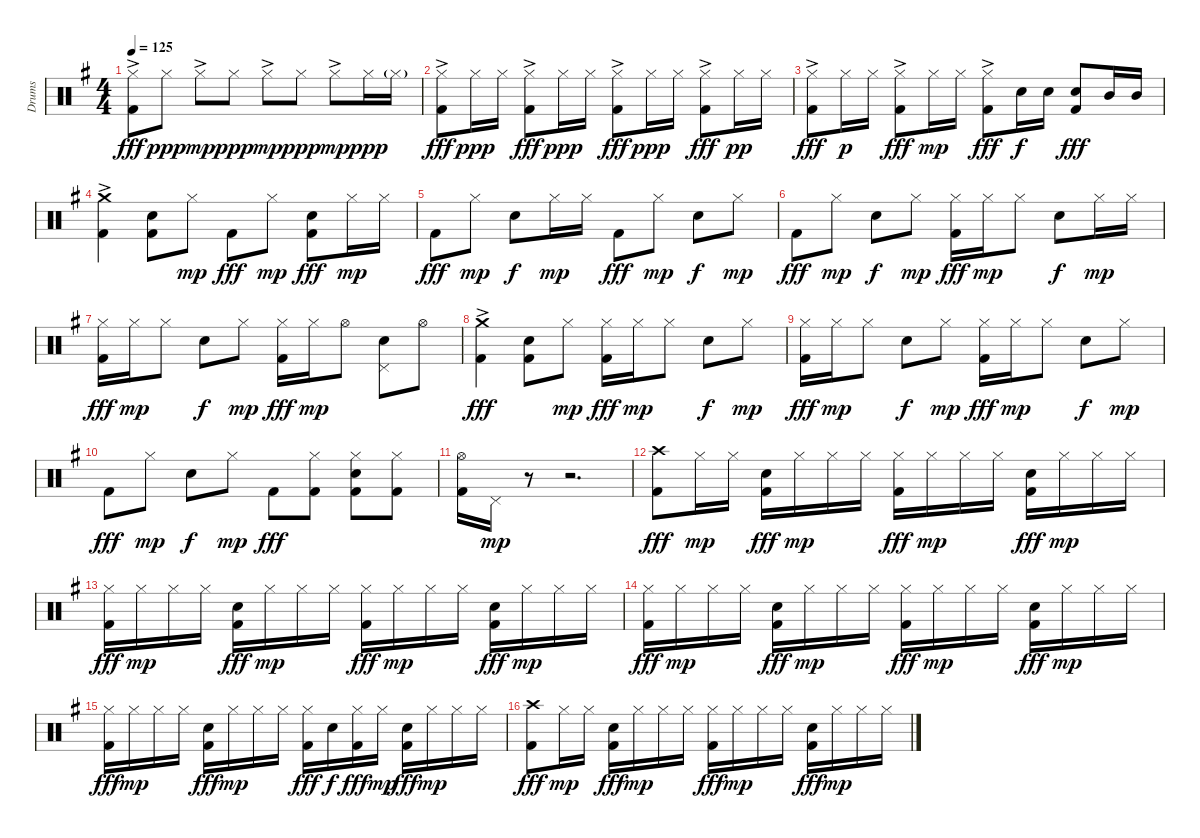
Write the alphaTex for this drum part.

\track ("Drums" "Drums") {instrument percussion}
\staff {score}
\articulation defaults
\ts (4 4)
\tempo 125
\clef neutral
\ks eminor
("Hi-Hat (closed)"{ac} "Kick (hit) 2").8{dy fff} "Hi-Hat (closed)".8{dy ppp} "Hi-Hat (closed)"{ac}.8{dy mp} "Hi-Hat (closed)".8{dy ppp} "Hi-Hat (closed)"{ac}.8{dy mp} "Hi-Hat (closed)".8{dy ppp} "Hi-Hat (closed)"{ac}.8{dy mp} "Hi-Hat (closed)".16{dy ppp} "Hi-Hat (closed)"{g}.16 |
("Hi-Hat (closed)"{ac} "Kick (hit) 2").8{dy fff} "Hi-Hat (closed)".16{dy ppp} "Hi-Hat (closed)".16 ("Hi-Hat (closed)"{ac} "Kick (hit) 2").8{dy fff} "Hi-Hat (closed)".16{dy ppp} "Hi-Hat (closed)".16 ("Hi-Hat (closed)"{ac} "Kick (hit) 2").8{dy fff} "Hi-Hat (closed)".16{dy ppp} "Hi-Hat (closed)".16 ("Hi-Hat (closed)"{ac} "Kick (hit) 2").8{dy fff} "Hi-Hat (closed)".16{dy pp} "Hi-Hat (closed)".16 |
("Hi-Hat (closed)"{ac} "Kick (hit) 2").8{dy fff} "Hi-Hat (closed)".16{dy p} "Hi-Hat (closed)".16 ("Hi-Hat (closed)"{ac} "Kick (hit) 2").8{dy fff} "Hi-Hat (closed)".16{dy mp} "Hi-Hat (closed)".16 ("Hi-Hat (closed)"{ac} "Kick (hit) 2").8{dy fff} "Electric Snare (hit)".16{dy f} "Electric Snare (hit)".16 ("Electric Snare (hit)" "Kick (hit) 2").8{dy fff} "Mid Tom (hit)".16 "Mid Tom (hit)".16 |
("Crash medium (hit)"{ac} "Kick (hit) 2").4 ("Electric Snare (hit)" "Kick (hit) 2").8 "Hi-Hat (closed)".8{dy mp} "Kick (hit) 2".8{dy fff} "Hi-Hat (closed)".8{dy mp} ("Electric Snare (hit)" "Kick (hit) 2").8{dy fff} "Hi-Hat (closed)".16{dy mp} "Hi-Hat (closed)".16 |
"Kick (hit) 2".8{dy fff} "Hi-Hat (closed)".8{dy mp} "Electric Snare (hit)".8{dy f} "Hi-Hat (closed)".16{dy mp} "Hi-Hat (closed)".16 "Kick (hit) 2".8{dy fff} "Hi-Hat (closed)".8{dy mp} "Electric Snare (hit)".8{dy f} "Hi-Hat (closed)".8{dy mp} |
"Kick (hit) 2".8{dy fff} "Hi-Hat (closed)".8{dy mp} "Electric Snare (hit)".8{dy f} "Hi-Hat (closed)".8{dy mp} ("Hi-Hat (closed)" "Kick (hit) 2").16{dy fff} "Hi-Hat (closed)".16{dy mp} "Hi-Hat (closed)".8 "Electric Snare (hit)".8{dy f} "Hi-Hat (closed)".16{dy mp} "Hi-Hat (closed)".16 |
("Hi-Hat (closed)" "Kick (hit) 2").16{dy fff} "Hi-Hat (closed)".16{dy mp} "Hi-Hat (closed)".8 "Electric Snare (hit)".8{dy f} "Hi-Hat (closed)".8{dy mp} ("Hi-Hat (closed)" "Kick (hit) 2").16{dy fff} "Hi-Hat (closed)".16{dy mp} "Hi-Hat (open)".8 ("Pedal Hi-Hat (hit)" "Electric Snare (hit)").8 "Hi-Hat (open)".8 |
("Crash medium (hit)"{ac} "Kick (hit) 2").4{dy fff} ("Electric Snare (hit)" "Kick (hit) 2").8 "Hi-Hat (closed)".8{dy mp} ("Hi-Hat (closed)" "Kick (hit) 2").16{dy fff} "Hi-Hat (closed)".16{dy mp} "Hi-Hat (closed)".8 "Electric Snare (hit)".8{dy f} "Hi-Hat (closed)".8{dy mp} |
("Hi-Hat (closed)" "Kick (hit) 2").16{dy fff} "Hi-Hat (closed)".16{dy mp} "Hi-Hat (closed)".8 "Electric Snare (hit)".8{dy f} "Hi-Hat (closed)".8{dy mp} ("Hi-Hat (closed)" "Kick (hit) 2").16{dy fff} "Hi-Hat (closed)".16{dy mp} "Hi-Hat (closed)".8 "Electric Snare (hit)".8{dy f} "Hi-Hat (closed)".8{dy mp} |
"Kick (hit) 2".8{dy fff} "Hi-Hat (closed)".8{dy mp} "Electric Snare (hit)".8{dy f} "Hi-Hat (closed)".8{dy mp} "Kick (hit) 2".8{dy fff} ("Hi-Hat (closed)" "Kick (hit) 2").8 ("Hi-Hat (closed)" "Electric Snare (hit)" "Kick (hit) 2").8 ("Hi-Hat (closed)" "Kick (hit) 2").8 |
("Hi-Hat (open)" "Kick (hit) 2").16 "Pedal Hi-Hat (hit)".16{dy mp} r.8 r.2{d} |
("Crash high (hit)" "Kick (hit) 2").8{dy fff} "Hi-Hat (closed)".16{dy mp} "Hi-Hat (closed)".16 ("Electric Snare (hit)" "Kick (hit) 2").16{dy fff} "Hi-Hat (closed)".16{dy mp} "Hi-Hat (closed)".16 "Hi-Hat (closed)".16 ("Hi-Hat (closed)" "Kick (hit) 2").16{dy fff} "Hi-Hat (closed)".16{dy mp} "Hi-Hat (closed)".16 "Hi-Hat (closed)".16 ("Electric Snare (hit)" "Kick (hit) 2").16{dy fff} "Hi-Hat (closed)".16{dy mp} "Hi-Hat (closed)".16 "Hi-Hat (closed)".16 |
("Hi-Hat (closed)" "Kick (hit) 2").16{dy fff} "Hi-Hat (closed)".16{dy mp} "Hi-Hat (closed)".16 "Hi-Hat (closed)".16 ("Electric Snare (hit)" "Kick (hit) 2").16{dy fff} "Hi-Hat (closed)".16{dy mp} "Hi-Hat (closed)".16 "Hi-Hat (closed)".16 ("Hi-Hat (closed)" "Kick (hit) 2").16{dy fff} "Hi-Hat (closed)".16{dy mp} "Hi-Hat (closed)".16 "Hi-Hat (closed)".16 ("Electric Snare (hit)" "Kick (hit) 2").16{dy fff} "Hi-Hat (closed)".16{dy mp} "Hi-Hat (closed)".16 "Hi-Hat (closed)".16 |
("Hi-Hat (closed)" "Kick (hit) 2").16{dy fff} "Hi-Hat (closed)".16{dy mp} "Hi-Hat (closed)".16 "Hi-Hat (closed)".16 ("Electric Snare (hit)" "Kick (hit) 2").16{dy fff} "Hi-Hat (closed)".16{dy mp} "Hi-Hat (closed)".16 "Hi-Hat (closed)".16 ("Hi-Hat (closed)" "Kick (hit) 2").16{dy fff} "Hi-Hat (closed)".16{dy mp} "Hi-Hat (closed)".16 "Hi-Hat (closed)".16 ("Electric Snare (hit)" "Kick (hit) 2").16{dy fff} "Hi-Hat (closed)".16{dy mp} "Hi-Hat (closed)".16 "Hi-Hat (closed)".16 |
("Hi-Hat (closed)" "Kick (hit) 2").16{dy fff} "Hi-Hat (closed)".16{dy mp} "Hi-Hat (closed)".16 "Hi-Hat (closed)".16 ("Electric Snare (hit)" "Kick (hit) 2").16{dy fff} "Hi-Hat (closed)".16{dy mp} "Hi-Hat (closed)".16 "Hi-Hat (closed)".16 ("Hi-Hat (closed)" "Kick (hit) 2").16{dy fff} "Electric Snare (hit)".16{dy f} ("Hi-Hat (closed)" "Kick (hit) 2").16{dy fff} "Hi-Hat (closed)".16{dy mp} ("Electric Snare (hit)" "Kick (hit) 2").16{dy fff} "Hi-Hat (closed)".16{dy mp} "Hi-Hat (closed)".16 "Hi-Hat (closed)".16 |
("Crash high (hit)" "Kick (hit) 2").8{dy fff} "Hi-Hat (closed)".16{dy mp} "Hi-Hat (closed)".16 ("Electric Snare (hit)" "Kick (hit) 2").16{dy fff} "Hi-Hat (closed)".16{dy mp} "Hi-Hat (closed)".16 "Hi-Hat (closed)".16 ("Hi-Hat (closed)" "Kick (hit) 2").16{dy fff} "Hi-Hat (closed)".16{dy mp} "Hi-Hat (closed)".16 "Hi-Hat (closed)".16 ("Electric Snare (hit)" "Kick (hit) 2").16{dy fff} "Hi-Hat (closed)".16{dy mp} "Hi-Hat (closed)".16 "Hi-Hat (closed)".16
